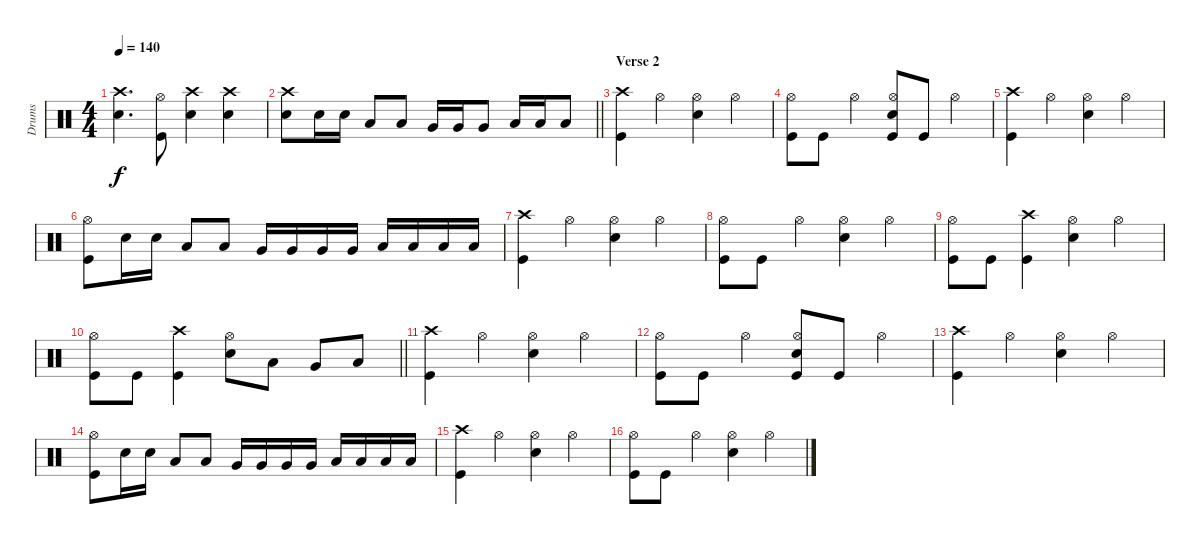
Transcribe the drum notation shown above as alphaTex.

\track ("Drums" "Drums") {instrument percussion}
\staff {score}
\articulation defaults
\ts (4 4)
\tempo 140
\clef neutral
\ks c
("Crash high (hit)" "Snare (hit) 2").4{d dy f} ("Hi-Hat (open)" "Kick (hit)").8 ("Crash high (hit)" "Snare (hit) 2").4 ("Crash high (hit)" "Snare (hit) 2").4 |
\barLineRight lightlight
("Crash high (hit)" "Snare (hit) 2").8 "Snare (hit) 2".16 "Snare (hit) 2".16 "Low Tom (hit)".8 "Low Tom (hit)".8 "Very Low Tom (hit)".16 "Very Low Tom (hit)".16 "Very Low Tom (hit)".8 "Low Floor Tom (hit)".16 "Low Floor Tom (hit)".16 "Low Floor Tom (hit)".8 |
\section ("" "Verse 2")
("Crash high (hit)" "Kick (hit)").4 "Hi-Hat (open)".4 ("Hi-Hat (open)" "Snare (hit) 2").4 "Hi-Hat (open)".4 |
("Hi-Hat (open)" "Kick (hit)").8 "Kick (hit)".8 "Hi-Hat (open)".4 ("Snare (hit) 2" "Kick (hit)" "Hi-Hat (open)").8 "Kick (hit)".8 "Hi-Hat (open)".4 |
("Crash high (hit)" "Kick (hit)").4 "Hi-Hat (open)".4 ("Hi-Hat (open)" "Snare (hit) 2").4 "Hi-Hat (open)".4 |
("Hi-Hat (open)" "Kick (hit)").8 "Snare (hit) 2".16 "Snare (hit) 2".16 "Low Tom (hit)".8 "Low Tom (hit)".8 "Very Low Tom (hit)".16 "Very Low Tom (hit)".16 "Very Low Tom (hit)".16 "Very Low Tom (hit)".16 "Low Floor Tom (hit)".16 "Low Floor Tom (hit)".16 "Low Floor Tom (hit)".16 "Low Floor Tom (hit)".16 |
("Crash high (hit)" "Kick (hit)").4 "Hi-Hat (open)".4 ("Hi-Hat (open)" "Snare (hit) 2").4 "Hi-Hat (open)".4 |
("Hi-Hat (open)" "Kick (hit)").8 "Kick (hit)".8 "Hi-Hat (open)".4 ("Snare (hit) 2" "Hi-Hat (open)").4 "Hi-Hat (open)".4 |
("Kick (hit)" "Hi-Hat (open)").8 "Kick (hit)".8 ("Kick (hit)" "Crash high (hit)").4 ("Snare (hit) 2" "Hi-Hat (open)").4 "Hi-Hat (open)".4 |
\barLineRight lightlight
("Kick (hit)" "Hi-Hat (open)").8 "Kick (hit)".8 ("Kick (hit)" "Crash high (hit)").4 ("Snare (hit) 2" "Hi-Hat (open)").8 "Low Tom (hit)".8 "Very Low Tom (hit)".8 "Low Floor Tom (hit)".8 |
("Crash high (hit)" "Kick (hit)").4 "Hi-Hat (open)".4 ("Hi-Hat (open)" "Snare (hit) 2").4 "Hi-Hat (open)".4 |
("Hi-Hat (open)" "Kick (hit)").8 "Kick (hit)".8 "Hi-Hat (open)".4 ("Snare (hit) 2" "Kick (hit)" "Hi-Hat (open)").8 "Kick (hit)".8 "Hi-Hat (open)".4 |
("Crash high (hit)" "Kick (hit)").4 "Hi-Hat (open)".4 ("Hi-Hat (open)" "Snare (hit) 2").4 "Hi-Hat (open)".4 |
("Hi-Hat (open)" "Kick (hit)").8 "Snare (hit) 2".16 "Snare (hit) 2".16 "Low Tom (hit)".8 "Low Tom (hit)".8 "Very Low Tom (hit)".16 "Very Low Tom (hit)".16 "Very Low Tom (hit)".16 "Very Low Tom (hit)".16 "Low Floor Tom (hit)".16 "Low Floor Tom (hit)".16 "Low Floor Tom (hit)".16 "Low Floor Tom (hit)".16 |
("Crash high (hit)" "Kick (hit)").4 "Hi-Hat (open)".4 ("Hi-Hat (open)" "Snare (hit) 2").4 "Hi-Hat (open)".4 |
("Hi-Hat (open)" "Kick (hit)").8 "Kick (hit)".8 "Hi-Hat (open)".4 ("Snare (hit) 2" "Hi-Hat (open)").4 "Hi-Hat (open)".4
